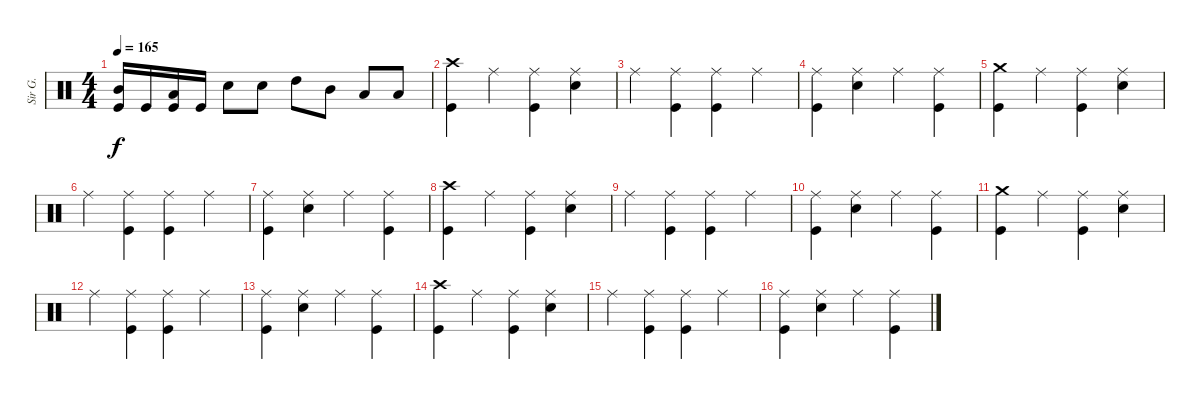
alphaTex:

\track ("Sir G." "Sir G.") {instrument percussion}
\staff {score}
\articulation defaults
\ts (4 4)
\tempo 165
\clef neutral
\ks c
("Mid Tom (hit)" "Kick (hit)").16{dy f} "Kick (hit)".16 ("Low Tom (hit)" "Kick (hit)").16 "Kick (hit)".16 "Electric Snare (hit)".8 "Electric Snare (hit)".8 "High Tom (hit)".8 "Mid Tom (hit)".8 "Low Tom (hit)".8 "Low Tom (hit)".8 |
("Crash high (hit)" "Kick (hit)").4 "Ride (middle)".4 ("Ride (middle)" "Kick (hit)").4 ("Ride (middle)" "Electric Snare (hit)").4 |
"Ride (middle)".4 ("Ride (middle)" "Kick (hit)").4 ("Ride (middle)" "Kick (hit)").4 "Ride (middle)".4 |
("Ride (middle)" "Kick (hit)").4 ("Ride (middle)" "Electric Snare (hit)").4 "Ride (middle)".4 ("Ride (middle)" "Kick (hit)").4 |
("Crash medium (hit)" "Kick (hit)").4 "Ride (middle)".4 ("Ride (middle)" "Kick (hit)").4 ("Ride (middle)" "Electric Snare (hit)").4 |
"Ride (middle)".4 ("Ride (middle)" "Kick (hit)").4 ("Ride (middle)" "Kick (hit)").4 "Ride (middle)".4 |
("Ride (middle)" "Kick (hit)").4 ("Ride (middle)" "Electric Snare (hit)").4 "Ride (middle)".4 ("Ride (middle)" "Kick (hit)").4 |
("Crash high (hit)" "Kick (hit)").4 "Ride (middle)".4 ("Ride (middle)" "Kick (hit)").4 ("Ride (middle)" "Electric Snare (hit)").4 |
"Ride (middle)".4 ("Ride (middle)" "Kick (hit)").4 ("Ride (middle)" "Kick (hit)").4 "Ride (middle)".4 |
("Ride (middle)" "Kick (hit)").4 ("Ride (middle)" "Electric Snare (hit)").4 "Ride (middle)".4 ("Ride (middle)" "Kick (hit)").4 |
("Crash medium (hit)" "Kick (hit)").4 "Ride (middle)".4 ("Ride (middle)" "Kick (hit)").4 ("Ride (middle)" "Electric Snare (hit)").4 |
"Ride (middle)".4 ("Ride (middle)" "Kick (hit)").4 ("Ride (middle)" "Kick (hit)").4 "Ride (middle)".4 |
("Ride (middle)" "Kick (hit)").4 ("Ride (middle)" "Electric Snare (hit)").4 "Ride (middle)".4 ("Ride (middle)" "Kick (hit)").4 |
("Crash high (hit)" "Kick (hit)").4 "Ride (middle)".4 ("Ride (middle)" "Kick (hit)").4 ("Ride (middle)" "Electric Snare (hit)").4 |
"Ride (middle)".4 ("Ride (middle)" "Kick (hit)").4 ("Ride (middle)" "Kick (hit)").4 "Ride (middle)".4 |
("Ride (middle)" "Kick (hit)").4 ("Ride (middle)" "Electric Snare (hit)").4 "Ride (middle)".4 ("Ride (middle)" "Kick (hit)").4
